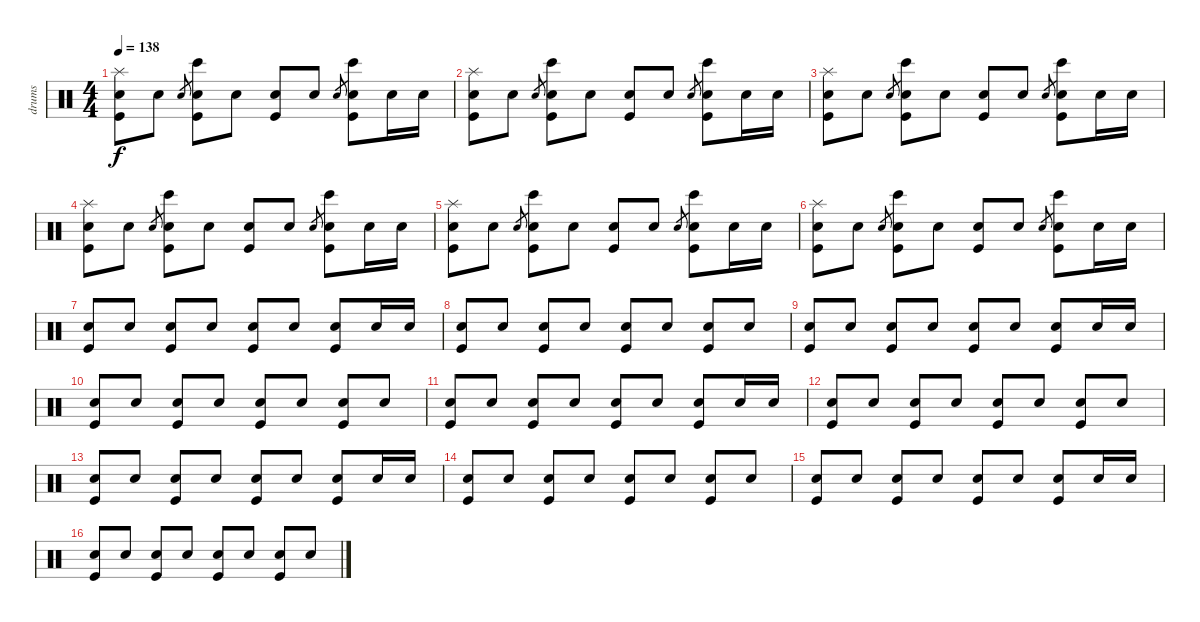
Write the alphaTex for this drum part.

\track ("drums" "drums") {instrument percussion}
\staff {score}
\articulation defaults
\ts (4 4)
\tempo 138
\clef neutral
\ks c
("Splash (hit)" "Snare (hit) 2" "Kick (hit)").8{dy f volume 11} "Snare (hit) 2".8 "Snare (hit)".8{gr} ("Bongo High (hit)" "Snare (hit) 2" "Kick (hit)").8 "Snare (hit) 2".8 ("Snare (hit) 2" "Kick (hit)").8 "Snare (hit) 2".8 "Snare (hit)".8{gr} ("Bongo High (hit)" "Snare (hit) 2" "Kick (hit)").8 "Snare (hit) 2".16 "Snare (hit) 2".16 |
("Splash (hit)" "Snare (hit) 2" "Kick (hit)").8{volume 11} "Snare (hit) 2".8 "Snare (hit)".8{gr} ("Bongo High (hit)" "Snare (hit) 2" "Kick (hit)").8 "Snare (hit) 2".8 ("Snare (hit) 2" "Kick (hit)").8 "Snare (hit) 2".8 "Snare (hit)".8{gr} ("Bongo High (hit)" "Snare (hit) 2" "Kick (hit)").8 "Snare (hit) 2".16 "Snare (hit) 2".16 |
("Splash (hit)" "Snare (hit) 2" "Kick (hit)").8{volume 11} "Snare (hit) 2".8 "Snare (hit)".8{gr} ("Bongo High (hit)" "Snare (hit) 2" "Kick (hit)").8 "Snare (hit) 2".8 ("Snare (hit) 2" "Kick (hit)").8 "Snare (hit) 2".8 "Snare (hit)".8{gr} ("Bongo High (hit)" "Snare (hit) 2" "Kick (hit)").8 "Snare (hit) 2".16 "Snare (hit) 2".16 |
("Splash (hit)" "Snare (hit) 2" "Kick (hit)").8{volume 11} "Snare (hit) 2".8 "Snare (hit)".8{gr} ("Bongo High (hit)" "Snare (hit) 2" "Kick (hit)").8 "Snare (hit) 2".8 ("Snare (hit) 2" "Kick (hit)").8 "Snare (hit) 2".8 "Snare (hit)".8{gr} ("Bongo High (hit)" "Snare (hit) 2" "Kick (hit)").8 "Snare (hit) 2".16 "Snare (hit) 2".16 |
("Splash (hit)" "Snare (hit) 2" "Kick (hit)").8{volume 11} "Snare (hit) 2".8 "Snare (hit)".8{gr} ("Bongo High (hit)" "Snare (hit) 2" "Kick (hit)").8 "Snare (hit) 2".8 ("Snare (hit) 2" "Kick (hit)").8 "Snare (hit) 2".8 "Snare (hit)".8{gr} ("Bongo High (hit)" "Snare (hit) 2" "Kick (hit)").8 "Snare (hit) 2".16 "Snare (hit) 2".16 |
("Splash (hit)" "Snare (hit) 2" "Kick (hit)").8{volume 11} "Snare (hit) 2".8 "Snare (hit)".8{gr} ("Bongo High (hit)" "Snare (hit) 2" "Kick (hit)").8 "Snare (hit) 2".8 ("Snare (hit) 2" "Kick (hit)").8 "Snare (hit) 2".8 "Snare (hit)".8{gr} ("Bongo High (hit)" "Snare (hit) 2" "Kick (hit)").8 "Snare (hit) 2".16 "Snare (hit) 2".16 |
("Snare (hit) 2" "Kick (hit)").8 "Snare (hit) 2".8 ("Snare (hit) 2" "Kick (hit)").8 "Snare (hit) 2".8 ("Snare (hit) 2" "Kick (hit)").8 "Snare (hit) 2".8 ("Snare (hit) 2" "Kick (hit)").8 "Snare (hit) 2".16{volume 11} "Snare (hit) 2".16 |
("Snare (hit) 2" "Kick (hit)").8 "Snare (hit) 2".8 ("Snare (hit) 2" "Kick (hit)").8 "Snare (hit) 2".8 ("Snare (hit) 2" "Kick (hit)").8 "Snare (hit) 2".8 ("Snare (hit) 2" "Kick (hit)").8 "Snare (hit) 2".8 |
("Snare (hit) 2" "Kick (hit)").8 "Snare (hit) 2".8 ("Snare (hit) 2" "Kick (hit)").8 "Snare (hit) 2".8 ("Snare (hit) 2" "Kick (hit)").8 "Snare (hit) 2".8 ("Snare (hit) 2" "Kick (hit)").8 "Snare (hit) 2".16{volume 11} "Snare (hit) 2".16 |
("Snare (hit) 2" "Kick (hit)").8 "Snare (hit) 2".8 ("Snare (hit) 2" "Kick (hit)").8 "Snare (hit) 2".8 ("Snare (hit) 2" "Kick (hit)").8 "Snare (hit) 2".8 ("Snare (hit) 2" "Kick (hit)").8 "Snare (hit) 2".8 |
("Snare (hit) 2" "Kick (hit)").8 "Snare (hit) 2".8 ("Snare (hit) 2" "Kick (hit)").8 "Snare (hit) 2".8 ("Snare (hit) 2" "Kick (hit)").8 "Snare (hit) 2".8 ("Snare (hit) 2" "Kick (hit)").8 "Snare (hit) 2".16{volume 11} "Snare (hit) 2".16 |
("Snare (hit) 2" "Kick (hit)").8 "Snare (hit) 2".8 ("Snare (hit) 2" "Kick (hit)").8 "Snare (hit) 2".8 ("Snare (hit) 2" "Kick (hit)").8 "Snare (hit) 2".8 ("Snare (hit) 2" "Kick (hit)").8 "Snare (hit) 2".8 |
("Snare (hit) 2" "Kick (hit)").8 "Snare (hit) 2".8 ("Snare (hit) 2" "Kick (hit)").8 "Snare (hit) 2".8 ("Snare (hit) 2" "Kick (hit)").8 "Snare (hit) 2".8 ("Snare (hit) 2" "Kick (hit)").8 "Snare (hit) 2".16{volume 11} "Snare (hit) 2".16 |
("Snare (hit) 2" "Kick (hit)").8 "Snare (hit) 2".8 ("Snare (hit) 2" "Kick (hit)").8 "Snare (hit) 2".8 ("Snare (hit) 2" "Kick (hit)").8 "Snare (hit) 2".8 ("Snare (hit) 2" "Kick (hit)").8 "Snare (hit) 2".8 |
("Snare (hit) 2" "Kick (hit)").8 "Snare (hit) 2".8 ("Snare (hit) 2" "Kick (hit)").8 "Snare (hit) 2".8 ("Snare (hit) 2" "Kick (hit)").8 "Snare (hit) 2".8 ("Snare (hit) 2" "Kick (hit)").8 "Snare (hit) 2".16{volume 11} "Snare (hit) 2".16 |
("Snare (hit) 2" "Kick (hit)").8 "Snare (hit) 2".8 ("Snare (hit) 2" "Kick (hit)").8 "Snare (hit) 2".8 ("Snare (hit) 2" "Kick (hit)").8 "Snare (hit) 2".8 ("Snare (hit) 2" "Kick (hit)").8 "Snare (hit) 2".8
